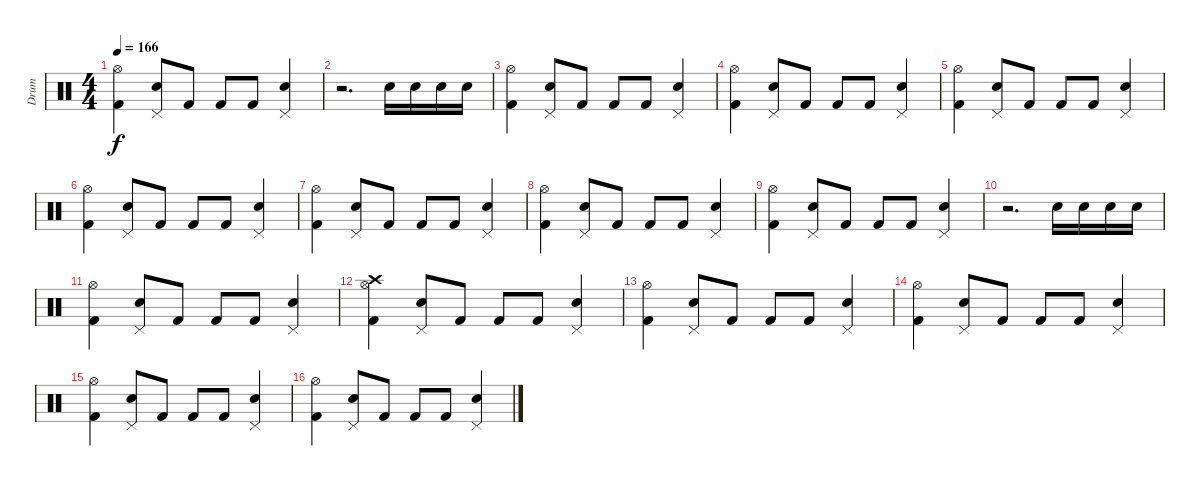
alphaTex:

\track ("Drum" "Drum") {instrument percussion}
\staff {score}
\articulation defaults
\ts (4 4)
\tempo 166
\clef neutral
\ks c
("Kick (hit) 2" "Hi-Hat (open)").4{dy f} ("Electric Snare (hit)" "Pedal Hi-Hat (hit)").8 "Kick (hit) 2".8 "Kick (hit) 2".8 "Kick (hit) 2".8 ("Electric Snare (hit)" "Pedal Hi-Hat (hit)").4 |
r.2{d} "Electric Snare (hit)".16 "Electric Snare (hit)".16 "Electric Snare (hit)".16 "Electric Snare (hit)".16 |
("Kick (hit) 2" "Hi-Hat (open)").4 ("Electric Snare (hit)" "Pedal Hi-Hat (hit)").8 "Kick (hit) 2".8 "Kick (hit) 2".8 "Kick (hit) 2".8 ("Electric Snare (hit)" "Pedal Hi-Hat (hit)").4 |
("Kick (hit) 2" "Hi-Hat (open)").4 ("Electric Snare (hit)" "Pedal Hi-Hat (hit)").8 "Kick (hit) 2".8 "Kick (hit) 2".8 "Kick (hit) 2".8 ("Electric Snare (hit)" "Pedal Hi-Hat (hit)").4 |
("Kick (hit) 2" "Hi-Hat (open)").4 ("Electric Snare (hit)" "Pedal Hi-Hat (hit)").8 "Kick (hit) 2".8 "Kick (hit) 2".8 "Kick (hit) 2".8 ("Electric Snare (hit)" "Pedal Hi-Hat (hit)").4 |
("Kick (hit) 2" "Hi-Hat (open)").4 ("Electric Snare (hit)" "Pedal Hi-Hat (hit)").8 "Kick (hit) 2".8 "Kick (hit) 2".8 "Kick (hit) 2".8 ("Electric Snare (hit)" "Pedal Hi-Hat (hit)").4 |
("Kick (hit) 2" "Hi-Hat (open)").4 ("Electric Snare (hit)" "Pedal Hi-Hat (hit)").8 "Kick (hit) 2".8 "Kick (hit) 2".8 "Kick (hit) 2".8 ("Electric Snare (hit)" "Pedal Hi-Hat (hit)").4 |
("Kick (hit) 2" "Hi-Hat (open)").4 ("Electric Snare (hit)" "Pedal Hi-Hat (hit)").8 "Kick (hit) 2".8 "Kick (hit) 2".8 "Kick (hit) 2".8 ("Electric Snare (hit)" "Pedal Hi-Hat (hit)").4 |
("Kick (hit) 2" "Hi-Hat (open)").4 ("Electric Snare (hit)" "Pedal Hi-Hat (hit)").8 "Kick (hit) 2".8 "Kick (hit) 2".8 "Kick (hit) 2".8 ("Electric Snare (hit)" "Pedal Hi-Hat (hit)").4 |
r.2{d} "Electric Snare (hit)".16 "Electric Snare (hit)".16 "Electric Snare (hit)".16 "Electric Snare (hit)".16 |
("Kick (hit) 2" "Hi-Hat (open)").4 ("Electric Snare (hit)" "Pedal Hi-Hat (hit)").8 "Kick (hit) 2".8 "Kick (hit) 2".8 "Kick (hit) 2".8 ("Electric Snare (hit)" "Pedal Hi-Hat (hit)").4 |
("Kick (hit) 2" "Hi-Hat (open)" "Crash high (hit)").4 ("Electric Snare (hit)" "Pedal Hi-Hat (hit)").8 "Kick (hit) 2".8 "Kick (hit) 2".8 "Kick (hit) 2".8 ("Electric Snare (hit)" "Pedal Hi-Hat (hit)").4 |
("Kick (hit) 2" "Hi-Hat (open)").4 ("Electric Snare (hit)" "Pedal Hi-Hat (hit)").8 "Kick (hit) 2".8 "Kick (hit) 2".8 "Kick (hit) 2".8 ("Electric Snare (hit)" "Pedal Hi-Hat (hit)").4 |
("Kick (hit) 2" "Hi-Hat (open)").4 ("Electric Snare (hit)" "Pedal Hi-Hat (hit)").8 "Kick (hit) 2".8 "Kick (hit) 2".8 "Kick (hit) 2".8 ("Electric Snare (hit)" "Pedal Hi-Hat (hit)").4 |
("Kick (hit) 2" "Hi-Hat (open)").4 ("Electric Snare (hit)" "Pedal Hi-Hat (hit)").8 "Kick (hit) 2".8 "Kick (hit) 2".8 "Kick (hit) 2".8 ("Electric Snare (hit)" "Pedal Hi-Hat (hit)").4 |
("Kick (hit) 2" "Hi-Hat (open)").4 ("Electric Snare (hit)" "Pedal Hi-Hat (hit)").8 "Kick (hit) 2".8 "Kick (hit) 2".8 "Kick (hit) 2".8 ("Electric Snare (hit)" "Pedal Hi-Hat (hit)").4
